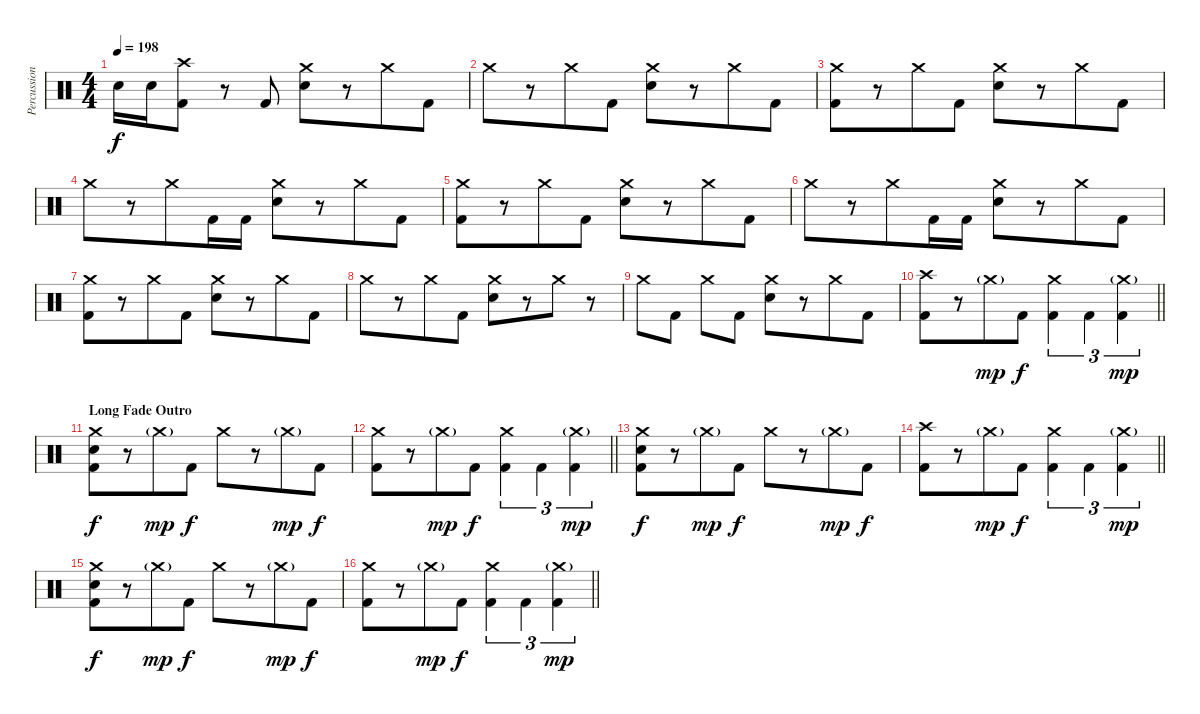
\track ("Percussion" "Percussion") {instrument percussion}
\staff {score}
\articulation defaults
\ts (4 4)
\tempo 198
\clef neutral
\ks c "Electric Snare (hit)".16{dy f beam merge} "Electric Snare (hit)".16{beam merge}
("Crash high (hit)" "Kick (hit) 2").8 r.8 "Kick (hit) 2".8 ("Crash medium (hit)" "Electric Snare (hit)").8{beam merge} r.8{beam merge} "Crash medium (hit)".8 "Kick (hit) 2".8 |
"Crash medium (hit)".8{beam merge} r.8 "Crash medium (hit)".8 "Kick (hit) 2".8 ("Crash medium (hit)" "Electric Snare (hit)").8{beam merge} r.8{beam merge} "Crash medium (hit)".8 "Kick (hit) 2".8 |
("Crash medium (hit)" "Kick (hit) 2").8{beam merge} r.8 "Crash medium (hit)".8 "Kick (hit) 2".8 ("Crash medium (hit)" "Electric Snare (hit)").8{beam merge} r.8{beam merge} "Crash medium (hit)".8 "Kick (hit) 2".8 |
"Crash medium (hit)".8{beam merge} r.8 "Crash medium (hit)".8 "Kick (hit) 2".16{beam merge} "Kick (hit) 2".16 ("Crash medium (hit)" "Electric Snare (hit)").8{beam merge} r.8{beam merge} "Crash medium (hit)".8 "Kick (hit) 2".8 |
("Crash medium (hit)" "Kick (hit) 2").8{beam merge} r.8 "Crash medium (hit)".8 "Kick (hit) 2".8 ("Crash medium (hit)" "Electric Snare (hit)").8{beam merge} r.8{beam merge} "Crash medium (hit)".8 "Kick (hit) 2".8 |
"Crash medium (hit)".8{beam merge} r.8 "Crash medium (hit)".8 "Kick (hit) 2".16{beam merge} "Kick (hit) 2".16 ("Crash medium (hit)" "Electric Snare (hit)").8{beam merge} r.8{beam merge} "Crash medium (hit)".8 "Kick (hit) 2".8 |
("Crash medium (hit)" "Kick (hit) 2").8{beam merge} r.8 "Crash medium (hit)".8 "Kick (hit) 2".8 ("Crash medium (hit)" "Electric Snare (hit)").8{beam merge} r.8{beam merge} "Crash medium (hit)".8 "Kick (hit) 2".8 |
"Crash medium (hit)".8{beam merge} r.8 "Crash medium (hit)".8 "Kick (hit) 2".8 ("Crash medium (hit)" "Electric Snare (hit)").8{beam merge} r.8{beam merge} "Crash medium (hit)".8 r.8 |
"Crash medium (hit)".8{beam merge} "Kick (hit) 2".8 "Crash medium (hit)".8 "Kick (hit) 2".8 ("Crash medium (hit)" "Electric Snare (hit)").8{beam merge} r.8{beam merge} "Crash medium (hit)".8 "Kick (hit) 2".8 |
\barLineRight lightlight
("Crash high (hit)" "Kick (hit) 2").8{beam merge} r.8 "Crash medium (hit)"{g}.8{dy mp} "Kick (hit) 2".8{dy f} ("Crash medium (hit)" "Kick (hit) 2").4{tu (3 2) beam merge} "Kick (hit) 2".4{tu (3 2) beam merge} ("Crash medium (hit)"{g} "Kick (hit) 2").4{tu (3 2) dy mp} |
\section ("" "Long Fade Outro")
("Crash medium (hit)" "Electric Snare (hit)" "Kick (hit) 2").8{dy f beam merge} r.8 "Crash medium (hit)"{g}.8{dy mp} "Kick (hit) 2".8{dy f} "Crash medium (hit)".8{beam merge} r.8{beam merge} "Crash medium (hit)"{g}.8{dy mp} "Kick (hit) 2".8{dy f} |
\barLineRight lightlight
("Crash medium (hit)" "Kick (hit) 2").8{beam merge} r.8 "Crash medium (hit)"{g}.8{dy mp} "Kick (hit) 2".8{dy f} ("Crash medium (hit)" "Kick (hit) 2").4{tu (3 2) beam merge} "Kick (hit) 2".4{tu (3 2) beam merge} ("Crash medium (hit)"{g} "Kick (hit) 2").4{tu (3 2) dy mp} |
("Crash medium (hit)" "Electric Snare (hit)" "Kick (hit) 2").8{dy f beam merge} r.8 "Crash medium (hit)"{g}.8{dy mp} "Kick (hit) 2".8{dy f} "Crash medium (hit)".8{beam merge} r.8{beam merge} "Crash medium (hit)"{g}.8{dy mp} "Kick (hit) 2".8{dy f} |
\barLineRight lightlight
("Crash high (hit)" "Kick (hit) 2").8{beam merge} r.8 "Crash medium (hit)"{g}.8{dy mp} "Kick (hit) 2".8{dy f} ("Crash medium (hit)" "Kick (hit) 2").4{tu (3 2) beam merge} "Kick (hit) 2".4{tu (3 2) beam merge} ("Crash medium (hit)"{g} "Kick (hit) 2").4{tu (3 2) dy mp} |
("Crash medium (hit)" "Electric Snare (hit)" "Kick (hit) 2").8{dy f beam merge} r.8 "Crash medium (hit)"{g}.8{dy mp} "Kick (hit) 2".8{dy f} "Crash medium (hit)".8{beam merge} r.8{beam merge} "Crash medium (hit)"{g}.8{dy mp} "Kick (hit) 2".8{dy f} |
\barLineRight lightlight
("Crash medium (hit)" "Kick (hit) 2").8{beam merge} r.8 "Crash medium (hit)"{g}.8{dy mp} "Kick (hit) 2".8{dy f} ("Crash medium (hit)" "Kick (hit) 2").4{tu (3 2) beam merge} "Kick (hit) 2".4{tu (3 2) beam merge} ("Crash medium (hit)"{g} "Kick (hit) 2").4{tu (3 2) dy mp}
